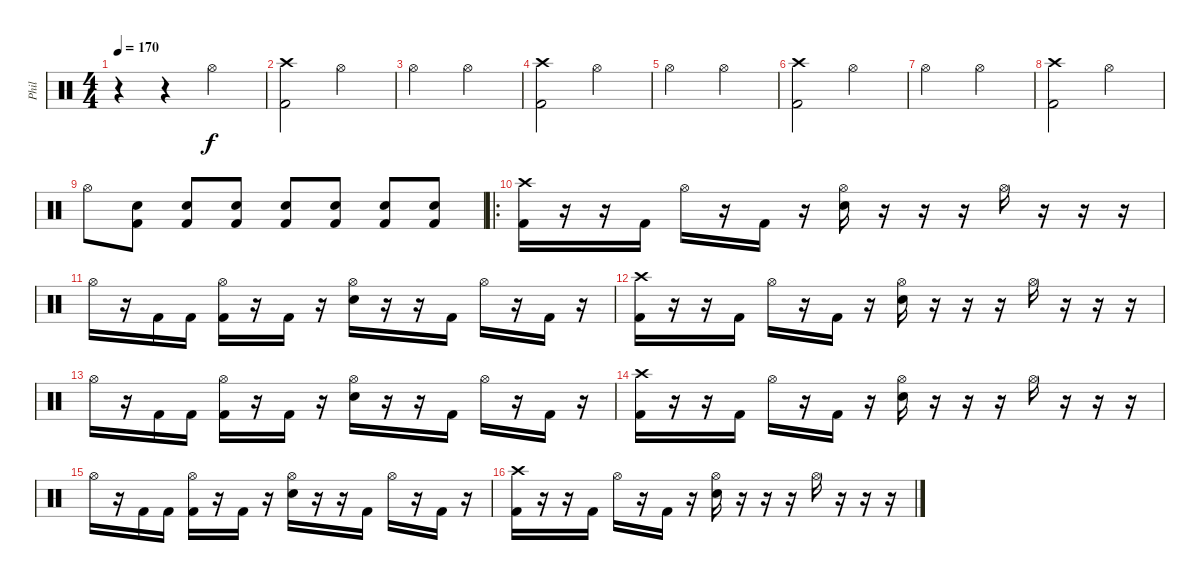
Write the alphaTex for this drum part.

\track ("Phil" "Phil") {instrument percussion}
\staff {score}
\articulation defaults
\ts (4 4)
\tempo 170
\clef neutral
\ks c
r.4{dy f} r.4 "Hi-Hat (open)".2 |
("Crash high (hit)" "Kick (hit) 2").2 "Hi-Hat (open)".2 |
"Hi-Hat (open)".2 "Hi-Hat (open)".2 |
("Crash high (hit)" "Kick (hit) 2").2 "Hi-Hat (open)".2 |
"Hi-Hat (open)".2 "Hi-Hat (open)".2 |
("Crash high (hit)" "Kick (hit) 2").2 "Hi-Hat (open)".2 |
"Hi-Hat (open)".2 "Hi-Hat (open)".2 |
("Crash high (hit)" "Kick (hit) 2").2 "Hi-Hat (open)".2 |
"Hi-Hat (open)".8 ("Electric Snare (hit)" "Kick (hit) 2").8 ("Electric Snare (hit)" "Kick (hit) 2").8 ("Electric Snare (hit)" "Kick (hit) 2").8 ("Electric Snare (hit)" "Kick (hit) 2").8 ("Electric Snare (hit)" "Kick (hit) 2").8 ("Electric Snare (hit)" "Kick (hit) 2").8 ("Electric Snare (hit)" "Kick (hit) 2").8 |
\ro
("Crash high (hit)" "Kick (hit) 2").16 r.16 r.16 "Kick (hit) 2".16 "Hi-Hat (open)".16 r.16 "Kick (hit) 2".16 r.16 ("Hi-Hat (open)" "Electric Snare (hit)").16 r.16 r.16 r.16 "Hi-Hat (open)".16 r.16 r.16 r.16 |
"Hi-Hat (open)".16 r.16 "Kick (hit) 2".16 "Kick (hit) 2".16 ("Hi-Hat (open)" "Kick (hit) 2").16 r.16 "Kick (hit) 2".16 r.16 ("Hi-Hat (open)" "Electric Snare (hit)").16 r.16 r.16 "Kick (hit) 2".16 "Hi-Hat (open)".16 r.16 "Kick (hit) 2".16 r.16 |
("Crash high (hit)" "Kick (hit) 2").16 r.16 r.16 "Kick (hit) 2".16 "Hi-Hat (open)".16 r.16 "Kick (hit) 2".16 r.16 ("Hi-Hat (open)" "Electric Snare (hit)").16 r.16 r.16 r.16 "Hi-Hat (open)".16 r.16 r.16 r.16 |
"Hi-Hat (open)".16 r.16 "Kick (hit) 2".16 "Kick (hit) 2".16 ("Hi-Hat (open)" "Kick (hit) 2").16 r.16 "Kick (hit) 2".16 r.16 ("Hi-Hat (open)" "Electric Snare (hit)").16 r.16 r.16 "Kick (hit) 2".16 "Hi-Hat (open)".16 r.16 "Kick (hit) 2".16 r.16 |
("Crash high (hit)" "Kick (hit) 2").16 r.16 r.16 "Kick (hit) 2".16 "Hi-Hat (open)".16 r.16 "Kick (hit) 2".16 r.16 ("Hi-Hat (open)" "Electric Snare (hit)").16 r.16 r.16 r.16 "Hi-Hat (open)".16 r.16 r.16 r.16 |
"Hi-Hat (open)".16 r.16 "Kick (hit) 2".16 "Kick (hit) 2".16 ("Hi-Hat (open)" "Kick (hit) 2").16 r.16 "Kick (hit) 2".16 r.16 ("Hi-Hat (open)" "Electric Snare (hit)").16 r.16 r.16 "Kick (hit) 2".16 "Hi-Hat (open)".16 r.16 "Kick (hit) 2".16 r.16 |
("Crash high (hit)" "Kick (hit) 2").16 r.16 r.16 "Kick (hit) 2".16 "Hi-Hat (open)".16 r.16 "Kick (hit) 2".16 r.16 ("Hi-Hat (open)" "Electric Snare (hit)").16 r.16 r.16 r.16 "Hi-Hat (open)".16 r.16 r.16 r.16
